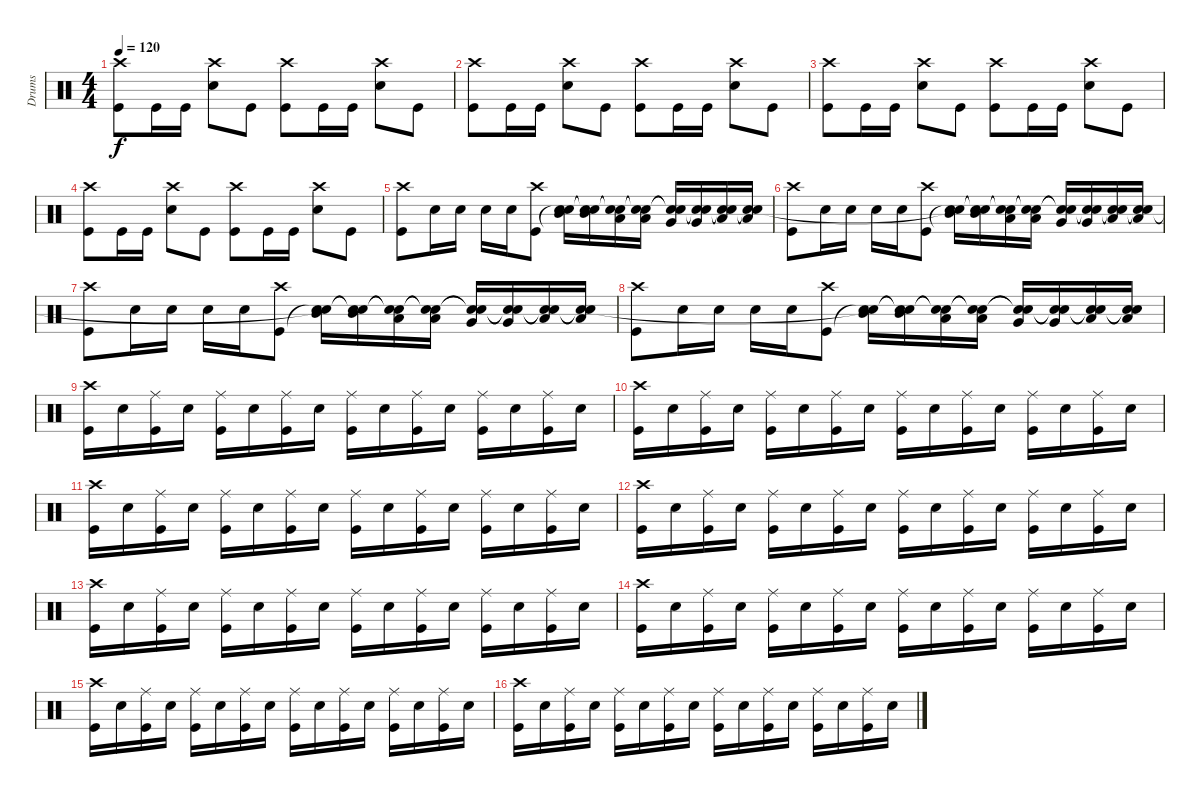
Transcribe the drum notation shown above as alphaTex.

\track ("Drums" "Drums") {instrument percussion}
\staff {score}
\articulation defaults
\ts (4 4)
\tempo 120
\clef neutral
\ks c
("Crash high (hit)" "Kick (hit)").8{dy f} "Kick (hit)".16 "Kick (hit)".16 ("Crash high (hit)" "Snare (hit) 2").8 "Kick (hit)".8 ("Crash high (hit)" "Kick (hit)").8 "Kick (hit)".16 "Kick (hit)".16 ("Crash high (hit)" "Snare (hit) 2").8 "Kick (hit)".8 |
("Crash high (hit)" "Kick (hit)").8 "Kick (hit)".16 "Kick (hit)".16 ("Crash high (hit)" "Snare (hit) 2").8 "Kick (hit)".8 ("Crash high (hit)" "Kick (hit)").8 "Kick (hit)".16 "Kick (hit)".16 ("Crash high (hit)" "Snare (hit) 2").8 "Kick (hit)".8 |
("Crash high (hit)" "Kick (hit)").8 "Kick (hit)".16 "Kick (hit)".16 ("Crash high (hit)" "Snare (hit) 2").8 "Kick (hit)".8 ("Crash high (hit)" "Kick (hit)").8 "Kick (hit)".16 "Kick (hit)".16 ("Crash high (hit)" "Snare (hit) 2").8 "Kick (hit)".8 |
("Crash high (hit)" "Kick (hit)").8 "Kick (hit)".16 "Kick (hit)".16 ("Crash high (hit)" "Snare (hit) 2").8 "Kick (hit)".8 ("Crash high (hit)" "Kick (hit)").8 "Kick (hit)".16 "Kick (hit)".16 ("Crash high (hit)" "Snare (hit) 2").8 "Kick (hit)".8 |
("Crash high (hit)" "Kick (hit)").8 "Snare (hit) 2".16 "Snare (hit) 2".16 "Snare (hit) 2".16 "Snare (hit) 2".16 ("Crash high (hit)" "Kick (hit)").8 ("Mid Tom (hit)" "Snare (hit)"{t} "Snare (hit)").16 ("Mid Tom (hit)" "Snare (hit)"{t} "Snare (hit)"{t}).16 ("Low Tom (hit)" "Snare (hit)"{t} "Snare (hit)"{t}).16 ("Low Tom (hit)" "Snare (hit)"{t} "Snare (hit)"{t}).16 ("Very Low Tom (hit)" "Snare (hit)"{t} "Snare (hit)"{t}).16 ("Very Low Tom (hit)" "Snare (hit)"{t} "Snare (hit)"{t}).16 ("Low Floor Tom (hit)" "Snare (hit)"{t} "Snare (hit)"{t}).16 ("Low Floor Tom (hit)" "Snare (hit)"{t} "Snare (hit)"{t}).16 |
("Crash high (hit)" "Kick (hit)").8 "Snare (hit) 2".16 "Snare (hit) 2".16 "Snare (hit) 2".16 "Snare (hit) 2".16 ("Crash high (hit)" "Kick (hit)").8 ("Mid Tom (hit)" "Snare (hit)"{t} "Snare (hit)"{t}).16 ("Mid Tom (hit)" "Snare (hit)"{t} "Snare (hit)"{t}).16 ("Low Tom (hit)" "Snare (hit)"{t} "Snare (hit)"{t}).16 ("Low Tom (hit)" "Snare (hit)"{t} "Snare (hit)"{t}).16 ("Very Low Tom (hit)" "Snare (hit)"{t} "Snare (hit)"{t}).16 ("Very Low Tom (hit)" "Snare (hit)"{t} "Snare (hit)"{t}).16 ("Low Floor Tom (hit)" "Snare (hit)"{t} "Snare (hit)"{t}).16 ("Low Floor Tom (hit)" "Snare (hit)"{t} "Snare (hit)"{t}).16 |
("Crash high (hit)" "Kick (hit)").8 "Snare (hit) 2".16 "Snare (hit) 2".16 "Snare (hit) 2".16 "Snare (hit) 2".16 ("Crash high (hit)" "Kick (hit)").8 ("Mid Tom (hit)" "Snare (hit)"{t} "Snare (hit)"{t}).16 ("Mid Tom (hit)" "Snare (hit)"{t} "Snare (hit)"{t}).16 ("Low Tom (hit)" "Snare (hit)"{t} "Snare (hit)"{t}).16 ("Low Tom (hit)" "Snare (hit)"{t} "Snare (hit)"{t}).16 ("Very Low Tom (hit)" "Snare (hit)"{t} "Snare (hit)"{t}).16 ("Very Low Tom (hit)" "Snare (hit)"{t} "Snare (hit)"{t}).16 ("Low Floor Tom (hit)" "Snare (hit)"{t} "Snare (hit)"{t}).16 ("Low Floor Tom (hit)" "Snare (hit)"{t} "Snare (hit)"{t}).16 |
("Crash high (hit)" "Kick (hit)").8 "Snare (hit) 2".16 "Snare (hit) 2".16 "Snare (hit) 2".16 "Snare (hit) 2".16 ("Crash high (hit)" "Kick (hit)").8 ("Mid Tom (hit)" "Snare (hit)"{t} "Snare (hit)"{t}).16 ("Mid Tom (hit)" "Snare (hit)"{t} "Snare (hit)"{t}).16 ("Low Tom (hit)" "Snare (hit)"{t} "Snare (hit)"{t}).16 ("Low Tom (hit)" "Snare (hit)"{t} "Snare (hit)"{t}).16 ("Very Low Tom (hit)" "Snare (hit)"{t} "Snare (hit)"{t}).16 ("Very Low Tom (hit)" "Snare (hit)"{t} "Snare (hit)"{t}).16 ("Low Floor Tom (hit)" "Snare (hit)"{t} "Snare (hit)"{t}).16 ("Low Floor Tom (hit)" "Snare (hit)"{t} "Snare (hit)"{t}).16 |
("Crash high (hit)" "Kick (hit)").16 "Snare (hit) 2".16 ("Ride (middle)" "Kick (hit)").16 "Snare (hit) 2".16 ("Ride (middle)" "Kick (hit)").16 "Snare (hit) 2".16 ("Ride (middle)" "Kick (hit)").16 "Snare (hit) 2".16 ("Ride (middle)" "Kick (hit)").16 "Snare (hit) 2".16 ("Ride (middle)" "Kick (hit)").16 "Snare (hit) 2".16 ("Ride (middle)" "Kick (hit)").16 "Snare (hit) 2".16 ("Ride (middle)" "Kick (hit)").16 "Snare (hit) 2".16 |
("Crash high (hit)" "Kick (hit)").16 "Snare (hit) 2".16 ("Ride (middle)" "Kick (hit)").16 "Snare (hit) 2".16 ("Ride (middle)" "Kick (hit)").16 "Snare (hit) 2".16 ("Ride (middle)" "Kick (hit)").16 "Snare (hit) 2".16 ("Ride (middle)" "Kick (hit)").16 "Snare (hit) 2".16 ("Ride (middle)" "Kick (hit)").16 "Snare (hit) 2".16 ("Ride (middle)" "Kick (hit)").16 "Snare (hit) 2".16 ("Ride (middle)" "Kick (hit)").16 "Snare (hit) 2".16 |
("Crash high (hit)" "Kick (hit)").16 "Snare (hit) 2".16 ("Ride (middle)" "Kick (hit)").16 "Snare (hit) 2".16 ("Ride (middle)" "Kick (hit)").16 "Snare (hit) 2".16 ("Ride (middle)" "Kick (hit)").16 "Snare (hit) 2".16 ("Ride (middle)" "Kick (hit)").16 "Snare (hit) 2".16 ("Ride (middle)" "Kick (hit)").16 "Snare (hit) 2".16 ("Ride (middle)" "Kick (hit)").16 "Snare (hit) 2".16 ("Ride (middle)" "Kick (hit)").16 "Snare (hit) 2".16 |
("Crash high (hit)" "Kick (hit)").16 "Snare (hit) 2".16 ("Ride (middle)" "Kick (hit)").16 "Snare (hit) 2".16 ("Ride (middle)" "Kick (hit)").16 "Snare (hit) 2".16 ("Ride (middle)" "Kick (hit)").16 "Snare (hit) 2".16 ("Ride (middle)" "Kick (hit)").16 "Snare (hit) 2".16 ("Ride (middle)" "Kick (hit)").16 "Snare (hit) 2".16 ("Ride (middle)" "Kick (hit)").16 "Snare (hit) 2".16 ("Ride (middle)" "Kick (hit)").16 "Snare (hit) 2".16 |
("Crash high (hit)" "Kick (hit)").16 "Snare (hit) 2".16 ("Ride (middle)" "Kick (hit)").16 "Snare (hit) 2".16 ("Ride (middle)" "Kick (hit)").16 "Snare (hit) 2".16 ("Ride (middle)" "Kick (hit)").16 "Snare (hit) 2".16 ("Ride (middle)" "Kick (hit)").16 "Snare (hit) 2".16 ("Ride (middle)" "Kick (hit)").16 "Snare (hit) 2".16 ("Ride (middle)" "Kick (hit)").16 "Snare (hit) 2".16 ("Ride (middle)" "Kick (hit)").16 "Snare (hit) 2".16 |
("Crash high (hit)" "Kick (hit)").16 "Snare (hit) 2".16 ("Ride (middle)" "Kick (hit)").16 "Snare (hit) 2".16 ("Ride (middle)" "Kick (hit)").16 "Snare (hit) 2".16 ("Ride (middle)" "Kick (hit)").16 "Snare (hit) 2".16 ("Ride (middle)" "Kick (hit)").16 "Snare (hit) 2".16 ("Ride (middle)" "Kick (hit)").16 "Snare (hit) 2".16 ("Ride (middle)" "Kick (hit)").16 "Snare (hit) 2".16 ("Ride (middle)" "Kick (hit)").16 "Snare (hit) 2".16 |
("Crash high (hit)" "Kick (hit)").16 "Snare (hit) 2".16 ("Ride (middle)" "Kick (hit)").16 "Snare (hit) 2".16 ("Ride (middle)" "Kick (hit)").16 "Snare (hit) 2".16 ("Ride (middle)" "Kick (hit)").16 "Snare (hit) 2".16 ("Ride (middle)" "Kick (hit)").16 "Snare (hit) 2".16 ("Ride (middle)" "Kick (hit)").16 "Snare (hit) 2".16 ("Ride (middle)" "Kick (hit)").16 "Snare (hit) 2".16 ("Ride (middle)" "Kick (hit)").16 "Snare (hit) 2".16 |
("Crash high (hit)" "Kick (hit)").16 "Snare (hit) 2".16 ("Ride (middle)" "Kick (hit)").16 "Snare (hit) 2".16 ("Ride (middle)" "Kick (hit)").16 "Snare (hit) 2".16 ("Ride (middle)" "Kick (hit)").16 "Snare (hit) 2".16 ("Ride (middle)" "Kick (hit)").16 "Snare (hit) 2".16 ("Ride (middle)" "Kick (hit)").16 "Snare (hit) 2".16 ("Ride (middle)" "Kick (hit)").16 "Snare (hit) 2".16 ("Ride (middle)" "Kick (hit)").16 "Snare (hit) 2".16
